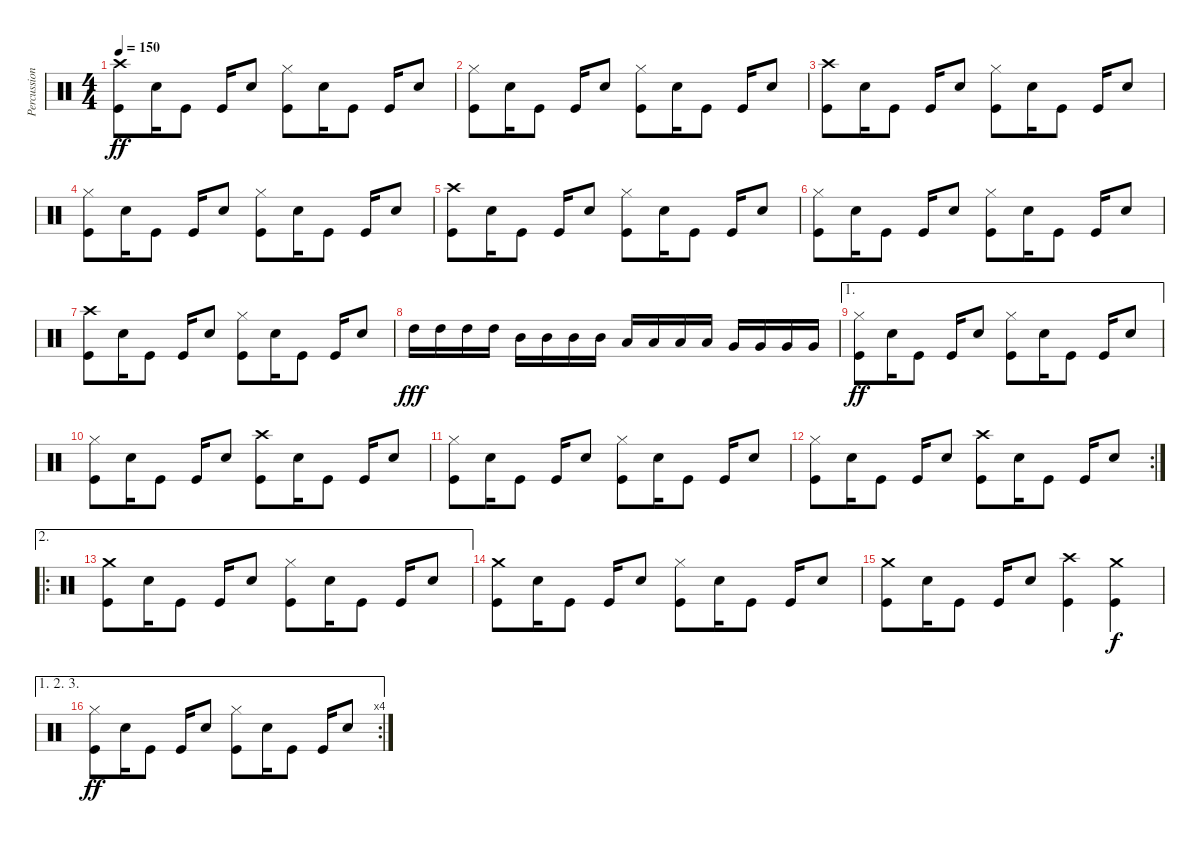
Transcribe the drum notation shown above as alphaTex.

\track ("Percussions" "Percussion") {instrument percussion}
\staff {score}
\articulation defaults
\ts (4 4)
\tempo 150
\clef neutral
\ks c
("Crash high (hit)" "Kick (hit)").8{dy ff} "Snare (hit) 2".16 "Kick (hit)".8 "Kick (hit)".16 "Snare (hit) 2".8 ("Hi-Hat (closed)" "Kick (hit)").8 "Snare (hit) 2".16 "Kick (hit)".8 "Kick (hit)".16 "Snare (hit) 2".8 |
("Hi-Hat (closed)" "Kick (hit)").8 "Snare (hit) 2".16 "Kick (hit)".8 "Kick (hit)".16 "Snare (hit) 2".8 ("Hi-Hat (closed)" "Kick (hit)").8 "Snare (hit) 2".16 "Kick (hit)".8 "Kick (hit)".16 "Snare (hit) 2".8 |
("Crash high (hit)" "Kick (hit)").8 "Snare (hit) 2".16 "Kick (hit)".8 "Kick (hit)".16 "Snare (hit) 2".8 ("Hi-Hat (closed)" "Kick (hit)").8 "Snare (hit) 2".16 "Kick (hit)".8 "Kick (hit)".16 "Snare (hit) 2".8 |
("Hi-Hat (closed)" "Kick (hit)").8 "Snare (hit) 2".16 "Kick (hit)".8 "Kick (hit)".16 "Snare (hit) 2".8 ("Hi-Hat (closed)" "Kick (hit)").8 "Snare (hit) 2".16 "Kick (hit)".8 "Kick (hit)".16 "Snare (hit) 2".8 |
("Crash high (hit)" "Kick (hit)").8 "Snare (hit) 2".16 "Kick (hit)".8 "Kick (hit)".16 "Snare (hit) 2".8 ("Hi-Hat (closed)" "Kick (hit)").8 "Snare (hit) 2".16 "Kick (hit)".8 "Kick (hit)".16 "Snare (hit) 2".8 |
("Hi-Hat (closed)" "Kick (hit)").8 "Snare (hit) 2".16 "Kick (hit)".8 "Kick (hit)".16 "Snare (hit) 2".8 ("Hi-Hat (closed)" "Kick (hit)").8 "Snare (hit) 2".16 "Kick (hit)".8 "Kick (hit)".16 "Snare (hit) 2".8 |
("Crash high (hit)" "Kick (hit)").8 "Snare (hit) 2".16 "Kick (hit)".8 "Kick (hit)".16 "Snare (hit) 2".8 ("Hi-Hat (closed)" "Kick (hit)").8 "Snare (hit) 2".16 "Kick (hit)".8 "Kick (hit)".16 "Snare (hit) 2".8 |
"High Tom (hit)".16{dy fff} "High Tom (hit)".16 "High Tom (hit)".16 "High Tom (hit)".16 "Mid Tom (hit)".16 "Mid Tom (hit)".16 "Mid Tom (hit)".16 "Mid Tom (hit)".16 "Low Tom (hit)".16 "Low Tom (hit)".16 "Low Tom (hit)".16 "Low Tom (hit)".16 "Very Low Tom (hit)".16 "Very Low Tom (hit)".16 "Very Low Tom (hit)".16 "Very Low Tom (hit)".16 |
\ae 1
("Hi-Hat (closed)" "Kick (hit)").8{dy ff} "Snare (hit) 2".16 "Kick (hit)".8 "Kick (hit)".16 "Snare (hit) 2".8 ("Hi-Hat (closed)" "Kick (hit)").8 "Snare (hit) 2".16 "Kick (hit)".8 "Kick (hit)".16 "Snare (hit) 2".8 |
("Hi-Hat (closed)" "Kick (hit)").8 "Snare (hit) 2".16 "Kick (hit)".8 "Kick (hit)".16 "Snare (hit) 2".8 ("Crash high (hit)" "Kick (hit)").8 "Snare (hit) 2".16 "Kick (hit)".8 "Kick (hit)".16 "Snare (hit) 2".8 |
("Hi-Hat (closed)" "Kick (hit)").8 "Snare (hit) 2".16 "Kick (hit)".8 "Kick (hit)".16 "Snare (hit) 2".8 ("Hi-Hat (closed)" "Kick (hit)").8 "Snare (hit) 2".16 "Kick (hit)".8 "Kick (hit)".16 "Snare (hit) 2".8 |
\rc 2
("Hi-Hat (closed)" "Kick (hit)").8 "Snare (hit) 2".16 "Kick (hit)".8 "Kick (hit)".16 "Snare (hit) 2".8 ("Crash high (hit)" "Kick (hit)").8 "Snare (hit) 2".16 "Kick (hit)".8 "Kick (hit)".16 "Snare (hit) 2".8 |
\ae 2
\ro
("Crash medium (hit)" "Kick (hit)").8 "Snare (hit) 2".16 "Kick (hit)".8 "Kick (hit)".16 "Snare (hit) 2".8 ("Hi-Hat (closed)" "Kick (hit)").8 "Snare (hit) 2".16 "Kick (hit)".8 "Kick (hit)".16 "Snare (hit) 2".8 |
("Crash medium (hit)" "Kick (hit)").8 "Snare (hit) 2".16 "Kick (hit)".8 "Kick (hit)".16 "Snare (hit) 2".8 ("Hi-Hat (closed)" "Kick (hit)").8 "Snare (hit) 2".16 "Kick (hit)".8 "Kick (hit)".16 "Snare (hit) 2".8 |
("Crash medium (hit)" "Kick (hit)").8 "Snare (hit) 2".16 "Kick (hit)".8 "Kick (hit)".16 "Snare (hit) 2".8 ("Crash high (hit)" "Kick (hit)").4 ("Crash medium (hit)" "Kick (hit)").4{dy f} |
\ae (1 2 3)
\rc 4
("Hi-Hat (closed)" "Kick (hit)").8{dy ff} "Snare (hit) 2".16 "Kick (hit)".8 "Kick (hit)".16 "Snare (hit) 2".8 ("Hi-Hat (closed)" "Kick (hit)").8 "Snare (hit) 2".16 "Kick (hit)".8 "Kick (hit)".16 "Snare (hit) 2".8
